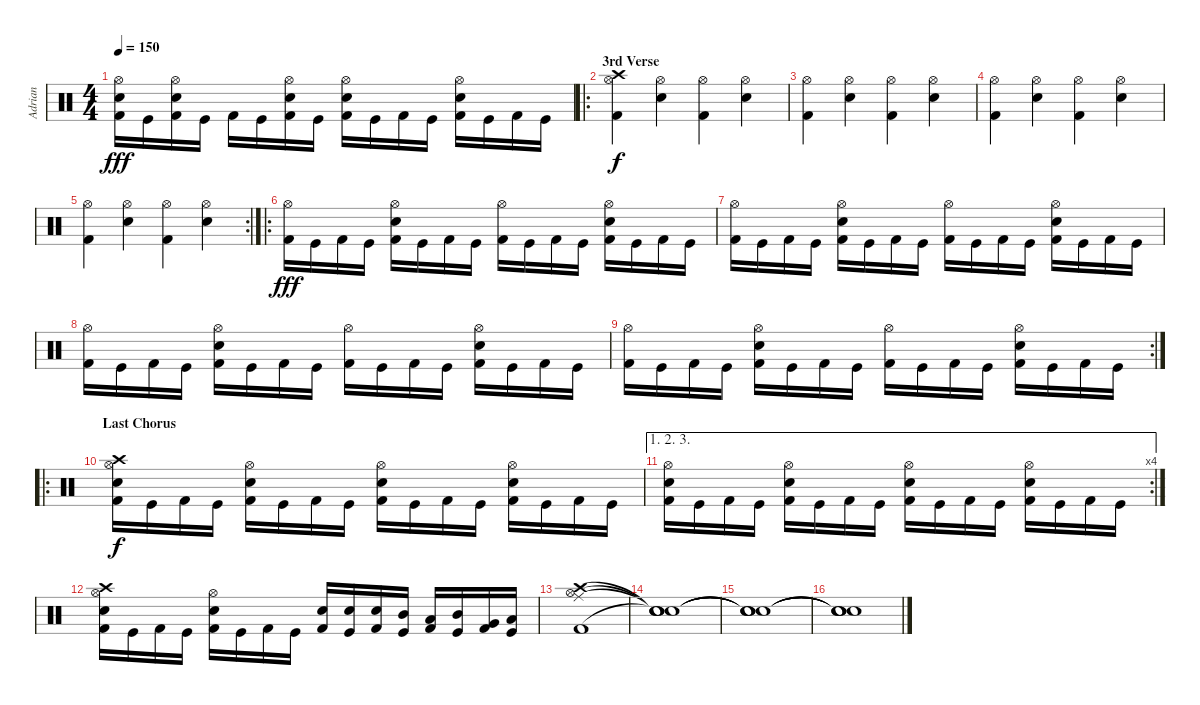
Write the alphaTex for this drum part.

\track ("Adrian" "Adrian") {instrument percussion}
\staff {score}
\articulation defaults
\ts (4 4)
\tempo 150
\clef neutral
\ks c
("Hi-Hat (open)" "Electric Snare (hit)" "Kick (hit) 2").16{dy fff} "Kick (hit)".16 ("Hi-Hat (open)" "Electric Snare (hit)" "Kick (hit) 2").16 "Kick (hit)".16 "Kick (hit) 2".16 "Kick (hit)".16 ("Hi-Hat (open)" "Electric Snare (hit)" "Kick (hit) 2").16 "Kick (hit)".16 ("Hi-Hat (open)" "Electric Snare (hit)" "Kick (hit) 2").16 "Kick (hit)".16 "Kick (hit) 2".16 "Kick (hit)".16 ("Hi-Hat (open)" "Electric Snare (hit)" "Kick (hit) 2").16 "Kick (hit)".16 "Kick (hit) 2".16 "Kick (hit)".16 |
\ro
\section ("" "3rd Verse")
("Hi-Hat (open)" "Crash high (hit)" "Kick (hit) 2").4{dy f} ("Hi-Hat (open)" "Electric Snare (hit)").4 ("Hi-Hat (open)" "Kick (hit) 2").4 ("Hi-Hat (open)" "Electric Snare (hit)").4 |
("Hi-Hat (open)" "Kick (hit) 2").4 ("Hi-Hat (open)" "Electric Snare (hit)").4 ("Hi-Hat (open)" "Kick (hit) 2").4 ("Hi-Hat (open)" "Electric Snare (hit)").4 |
("Hi-Hat (open)" "Kick (hit) 2").4 ("Hi-Hat (open)" "Electric Snare (hit)").4 ("Hi-Hat (open)" "Kick (hit) 2").4 ("Hi-Hat (open)" "Electric Snare (hit)").4 |
\rc 2
("Hi-Hat (open)" "Kick (hit) 2").4 ("Hi-Hat (open)" "Electric Snare (hit)").4 ("Hi-Hat (open)" "Kick (hit) 2").4 ("Hi-Hat (open)" "Electric Snare (hit)").4 |
\ro
("Hi-Hat (open)" "Kick (hit) 2").16{dy fff} "Kick (hit)".16 "Kick (hit) 2".16 "Kick (hit)".16 ("Hi-Hat (open)" "Electric Snare (hit)" "Kick (hit) 2").16 "Kick (hit)".16 "Kick (hit) 2".16 "Kick (hit)".16 ("Hi-Hat (open)" "Kick (hit) 2").16 "Kick (hit)".16 "Kick (hit) 2".16 "Kick (hit)".16 ("Hi-Hat (open)" "Electric Snare (hit)" "Kick (hit) 2").16 "Kick (hit)".16 "Kick (hit) 2".16 "Kick (hit)".16 |
("Hi-Hat (open)" "Kick (hit) 2").16 "Kick (hit)".16 "Kick (hit) 2".16 "Kick (hit)".16 ("Hi-Hat (open)" "Electric Snare (hit)" "Kick (hit) 2").16 "Kick (hit)".16 "Kick (hit) 2".16 "Kick (hit)".16 ("Hi-Hat (open)" "Kick (hit) 2").16 "Kick (hit)".16 "Kick (hit) 2".16 "Kick (hit)".16 ("Hi-Hat (open)" "Electric Snare (hit)" "Kick (hit) 2").16 "Kick (hit)".16 "Kick (hit) 2".16 "Kick (hit)".16 |
("Hi-Hat (open)" "Kick (hit) 2").16 "Kick (hit)".16 "Kick (hit) 2".16 "Kick (hit)".16 ("Hi-Hat (open)" "Electric Snare (hit)" "Kick (hit) 2").16 "Kick (hit)".16 "Kick (hit) 2".16 "Kick (hit)".16 ("Hi-Hat (open)" "Kick (hit) 2").16 "Kick (hit)".16 "Kick (hit) 2".16 "Kick (hit)".16 ("Hi-Hat (open)" "Electric Snare (hit)" "Kick (hit) 2").16 "Kick (hit)".16 "Kick (hit) 2".16 "Kick (hit)".16 |
\rc 2
("Hi-Hat (open)" "Kick (hit) 2").16 "Kick (hit)".16 "Kick (hit) 2".16 "Kick (hit)".16 ("Hi-Hat (open)" "Electric Snare (hit)" "Kick (hit) 2").16 "Kick (hit)".16 "Kick (hit) 2".16 "Kick (hit)".16 ("Hi-Hat (open)" "Kick (hit) 2").16 "Kick (hit)".16 "Kick (hit) 2".16 "Kick (hit)".16 ("Hi-Hat (open)" "Electric Snare (hit)" "Kick (hit) 2").16 "Kick (hit)".16 "Kick (hit) 2".16 "Kick (hit)".16 |
\ro
\section ("" "Last Chorus")
("Hi-Hat (open)" "Crash high (hit)" "Electric Snare (hit)" "Kick (hit) 2").16{dy f} "Kick (hit)".16 "Kick (hit) 2".16 "Kick (hit)".16 ("Hi-Hat (open)" "Electric Snare (hit)" "Kick (hit) 2").16 "Kick (hit)".16 "Kick (hit) 2".16 "Kick (hit)".16 ("Hi-Hat (open)" "Electric Snare (hit)" "Kick (hit) 2").16 "Kick (hit)".16 "Kick (hit) 2".16 "Kick (hit)".16 ("Hi-Hat (open)" "Electric Snare (hit)" "Kick (hit) 2").16 "Kick (hit)".16 "Kick (hit) 2".16 "Kick (hit)".16 |
\ae (1 2 3)
\rc 4
("Hi-Hat (open)" "Electric Snare (hit)" "Kick (hit) 2").16 "Kick (hit)".16 "Kick (hit) 2".16 "Kick (hit)".16 ("Hi-Hat (open)" "Electric Snare (hit)" "Kick (hit) 2").16 "Kick (hit)".16 "Kick (hit) 2".16 "Kick (hit)".16 ("Hi-Hat (open)" "Electric Snare (hit)" "Kick (hit) 2").16 "Kick (hit)".16 "Kick (hit) 2".16 "Kick (hit)".16 ("Hi-Hat (open)" "Electric Snare (hit)" "Kick (hit) 2").16 "Kick (hit)".16 "Kick (hit) 2".16 "Kick (hit)".16 |
("Hi-Hat (open)" "Crash high (hit)" "Electric Snare (hit)" "Kick (hit) 2").16 "Kick (hit)".16 "Kick (hit) 2".16 "Kick (hit)".16 ("Hi-Hat (open)" "Electric Snare (hit)" "Kick (hit) 2").16 "Kick (hit)".16 "Kick (hit) 2".16 "Kick (hit)".16 ("Electric Snare (hit)" "Kick (hit) 2").16 ("Electric Snare (hit)" "Kick (hit)").16 ("Electric Snare (hit)" "Kick (hit) 2").16 ("Mid Tom (hit)" "Kick (hit)").16 ("Low Tom (hit)" "Kick (hit) 2").16 ("Mid Tom (hit)" "Kick (hit)").16 ("Very Low Tom (hit)" "Kick (hit) 2").16 ("Low Tom (hit)" "Kick (hit)").16 |
("Crash high (hit)" "Ride (middle)" "Hi-Hat (open)" "Kick (hit) 2").1 |
("Snare (hit)"{t} "Snare (hit)"{t} "Snare (hit)"{t} "Snare (hit)"{t}).1 |
("Snare (hit)"{t} "Snare (hit)"{t} "Snare (hit)"{t} "Snare (hit)"{t}).1 |
("Snare (hit)"{t} "Snare (hit)"{t} "Snare (hit)"{t} "Snare (hit)"{t}).1
